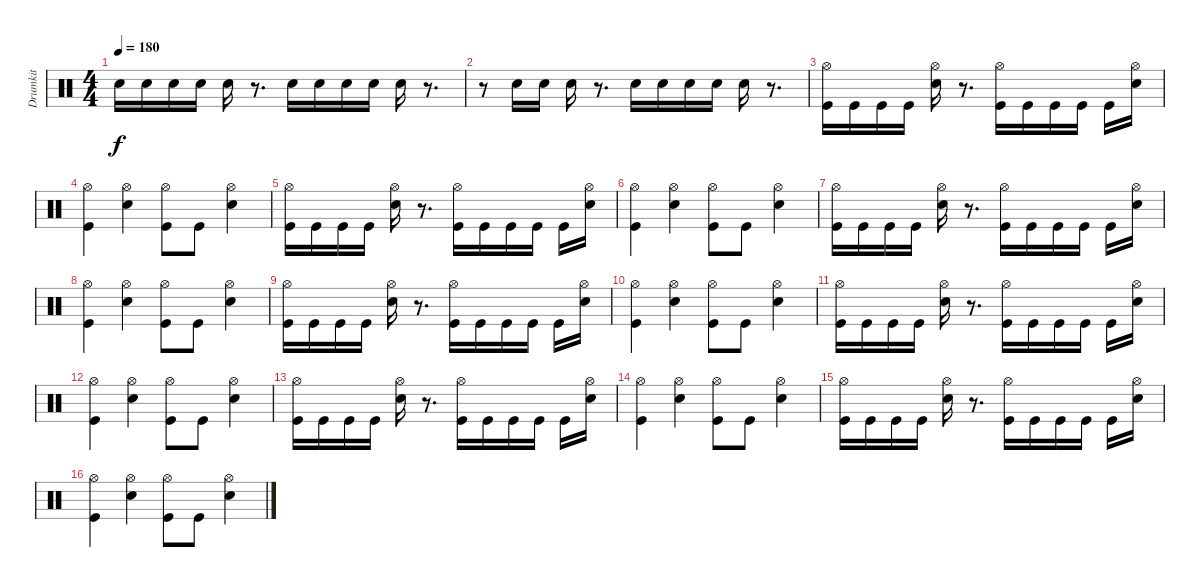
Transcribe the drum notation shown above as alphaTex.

\track ("Drumkit" "Drumkit") {instrument percussion}
\staff {score}
\articulation defaults
\ts (4 4)
\tempo 180
\clef neutral
\ks c "Snare (hit) 2".16{dy f} "Snare (hit) 2".16 "Snare (hit) 2".16 "Snare (hit) 2".16 "Snare (hit) 2".16
r.8{d} "Snare (hit) 2".16 "Snare (hit) 2".16 "Snare (hit) 2".16 "Snare (hit) 2".16 "Snare (hit) 2".16 r.8{d} |
r.8 "Snare (hit) 2".16 "Snare (hit) 2".16 "Snare (hit) 2".16 r.8{d} "Snare (hit) 2".16 "Snare (hit) 2".16 "Snare (hit) 2".16 "Snare (hit) 2".16 "Snare (hit) 2".16 r.8{d} |
("Hi-Hat (open)" "Kick (hit)").16 "Kick (hit)".16 "Kick (hit)".16 "Kick (hit)".16 ("Hi-Hat (open)" "Snare (hit) 2").16 r.8{d} ("Hi-Hat (open)" "Kick (hit)").16 "Kick (hit)".16 "Kick (hit)".16 "Kick (hit)".16 "Kick (hit)".16 ("Hi-Hat (open)" "Snare (hit) 2").16 |
("Hi-Hat (open)" "Kick (hit)").4 ("Hi-Hat (open)" "Snare (hit) 2").4 ("Hi-Hat (open)" "Kick (hit)").8 "Kick (hit)".8 ("Hi-Hat (open)" "Snare (hit) 2").4 |
("Hi-Hat (open)" "Kick (hit)").16 "Kick (hit)".16 "Kick (hit)".16 "Kick (hit)".16 ("Hi-Hat (open)" "Snare (hit) 2").16 r.8{d} ("Hi-Hat (open)" "Kick (hit)").16 "Kick (hit)".16 "Kick (hit)".16 "Kick (hit)".16 "Kick (hit)".16 ("Hi-Hat (open)" "Snare (hit) 2").16 |
("Hi-Hat (open)" "Kick (hit)").4 ("Hi-Hat (open)" "Snare (hit) 2").4 ("Hi-Hat (open)" "Kick (hit)").8 "Kick (hit)".8 ("Hi-Hat (open)" "Snare (hit) 2").4 |
("Hi-Hat (open)" "Kick (hit)").16 "Kick (hit)".16 "Kick (hit)".16 "Kick (hit)".16 ("Hi-Hat (open)" "Snare (hit) 2").16 r.8{d} ("Hi-Hat (open)" "Kick (hit)").16 "Kick (hit)".16 "Kick (hit)".16 "Kick (hit)".16 "Kick (hit)".16 ("Hi-Hat (open)" "Snare (hit) 2").16 |
("Hi-Hat (open)" "Kick (hit)").4 ("Hi-Hat (open)" "Snare (hit) 2").4 ("Hi-Hat (open)" "Kick (hit)").8 "Kick (hit)".8 ("Hi-Hat (open)" "Snare (hit) 2").4 |
("Hi-Hat (open)" "Kick (hit)").16 "Kick (hit)".16 "Kick (hit)".16 "Kick (hit)".16 ("Hi-Hat (open)" "Snare (hit) 2").16 r.8{d} ("Hi-Hat (open)" "Kick (hit)").16 "Kick (hit)".16 "Kick (hit)".16 "Kick (hit)".16 "Kick (hit)".16 ("Hi-Hat (open)" "Snare (hit) 2").16 |
("Hi-Hat (open)" "Kick (hit)").4 ("Hi-Hat (open)" "Snare (hit) 2").4 ("Hi-Hat (open)" "Kick (hit)").8 "Kick (hit)".8 ("Hi-Hat (open)" "Snare (hit) 2").4 |
("Hi-Hat (open)" "Kick (hit)").16 "Kick (hit)".16 "Kick (hit)".16 "Kick (hit)".16 ("Hi-Hat (open)" "Snare (hit) 2").16 r.8{d} ("Hi-Hat (open)" "Kick (hit)").16 "Kick (hit)".16 "Kick (hit)".16 "Kick (hit)".16 "Kick (hit)".16 ("Hi-Hat (open)" "Snare (hit) 2").16 |
("Hi-Hat (open)" "Kick (hit)").4 ("Hi-Hat (open)" "Snare (hit) 2").4 ("Hi-Hat (open)" "Kick (hit)").8 "Kick (hit)".8 ("Hi-Hat (open)" "Snare (hit) 2").4 |
("Hi-Hat (open)" "Kick (hit)").16 "Kick (hit)".16 "Kick (hit)".16 "Kick (hit)".16 ("Hi-Hat (open)" "Snare (hit) 2").16 r.8{d} ("Hi-Hat (open)" "Kick (hit)").16 "Kick (hit)".16 "Kick (hit)".16 "Kick (hit)".16 "Kick (hit)".16 ("Hi-Hat (open)" "Snare (hit) 2").16 |
("Hi-Hat (open)" "Kick (hit)").4 ("Hi-Hat (open)" "Snare (hit) 2").4 ("Hi-Hat (open)" "Kick (hit)").8 "Kick (hit)".8 ("Hi-Hat (open)" "Snare (hit) 2").4 |
("Hi-Hat (open)" "Kick (hit)").16 "Kick (hit)".16 "Kick (hit)".16 "Kick (hit)".16 ("Hi-Hat (open)" "Snare (hit) 2").16 r.8{d} ("Hi-Hat (open)" "Kick (hit)").16 "Kick (hit)".16 "Kick (hit)".16 "Kick (hit)".16 "Kick (hit)".16 ("Hi-Hat (open)" "Snare (hit) 2").16 |
("Hi-Hat (open)" "Kick (hit)").4 ("Hi-Hat (open)" "Snare (hit) 2").4 ("Hi-Hat (open)" "Kick (hit)").8 "Kick (hit)".8 ("Hi-Hat (open)" "Snare (hit) 2").4
